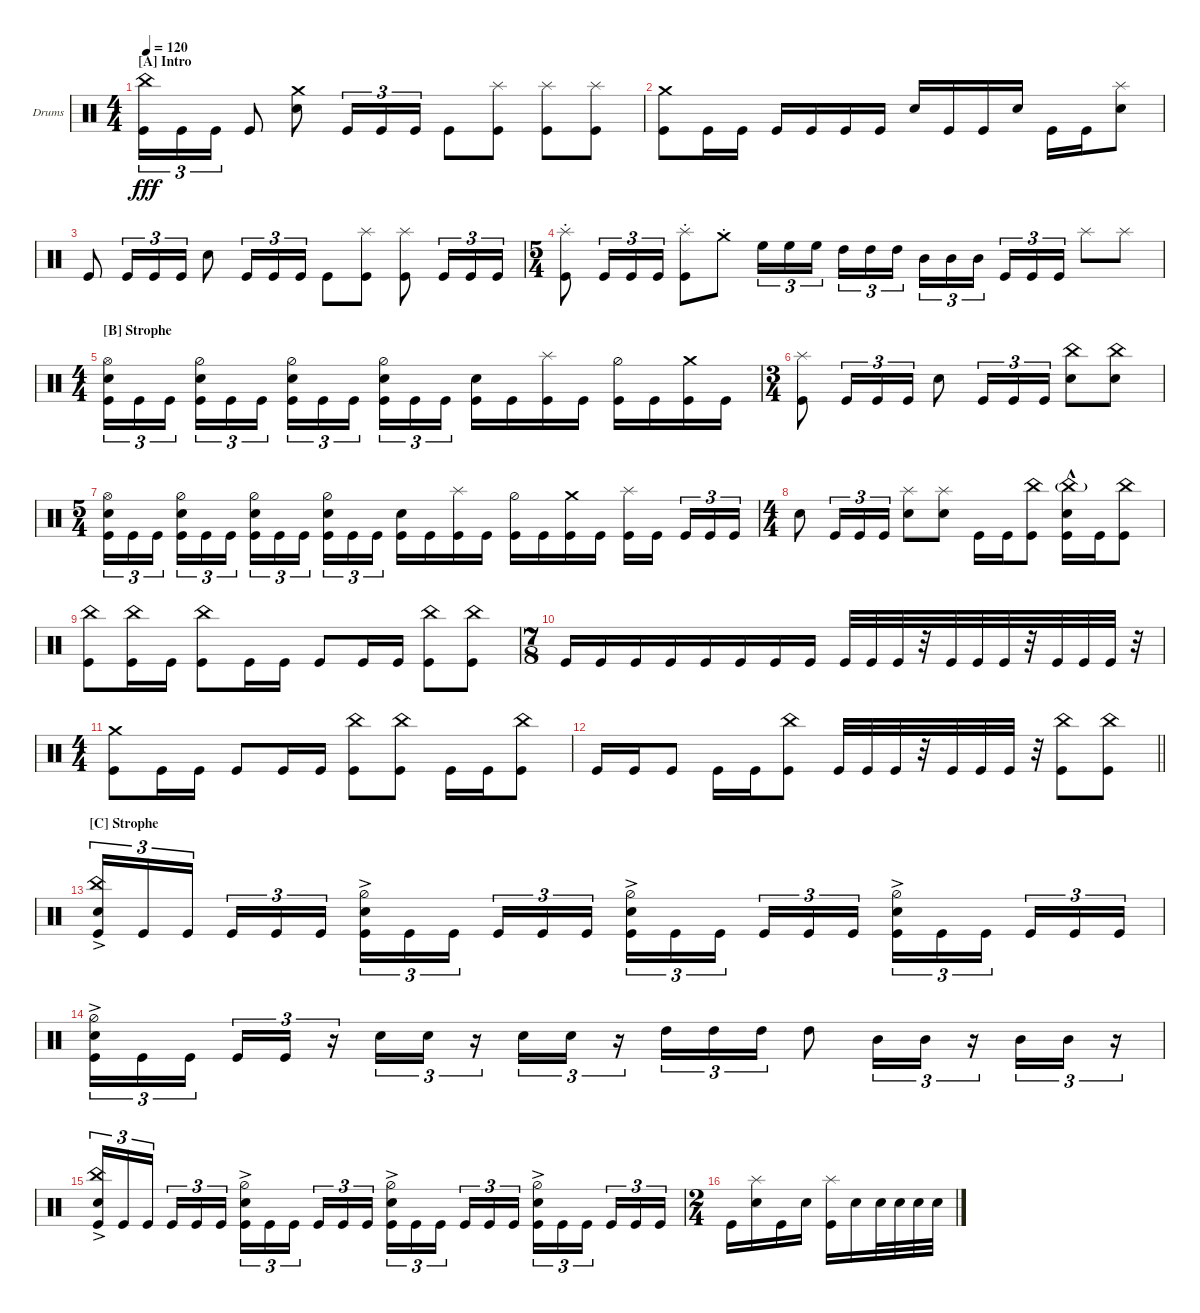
\defaultSystemsLayout 4
\bracketExtendMode groupsimilarinstruments
\firstSystemTrackNameOrientation horizontal
\otherSystemsTrackNameOrientation horizontal
\track ("Drumkit" "Drums") {instrument percussion}
\staff {score}
\articulation defaults
\ts (4 4)
\section ("A" "Intro")
\tempo 120
\clef neutral
\ks c
("Kick (hit)" "China (hit)").16{tu (3 2) dy fff} "Kick (hit)".16{tu (3 2)} "Kick (hit)".16{tu (3 2)} "Kick (hit)".8 ("Snare (hit) 2" "Crash medium (hit)").8 "Kick (hit)".16{tu (3 2)} "Kick (hit)".16{tu (3 2)} "Kick (hit)".16{tu (3 2)} "Kick (hit)".8 ("Kick (hit)" "Splash (hit)").8 ("Kick (hit)" "Splash (hit)").8 ("Kick (hit)" "Splash (hit)").8 |
("Crash medium (hit)" "Kick (hit)").8 "Kick (hit)".16 "Kick (hit)".16 "Kick (hit)".16 "Kick (hit)".16 "Kick (hit)".16 "Kick (hit)".16 "Snare (hit) 2".16 "Kick (hit)".16 "Kick (hit)".16 "Snare (hit) 2".16 "Kick (hit)".16 "Kick (hit)".16 ("Snare (hit) 2" "Splash (hit)").8 |
"Kick (hit)".8 "Kick (hit)".16{tu (3 2)} "Kick (hit)".16{tu (3 2)} "Kick (hit)".16{tu (3 2)} "Snare (hit) 2".8 "Kick (hit)".16{tu (3 2)} "Kick (hit)".16{tu (3 2)} "Kick (hit)".16{tu (3 2)} "Kick (hit)".8 ("Kick (hit)" "Splash (hit)").8 ("Kick (hit)" "Splash (hit)").8 "Kick (hit)".16{tu (3 2)} "Kick (hit)".16{tu (3 2)} "Kick (hit)".16{tu (3 2)} |
\ts (5 4)
("Kick (hit)" "Splash (hit)"{st}).8 "Kick (hit)".16{tu (3 2)} "Kick (hit)".16{tu (3 2)} "Kick (hit)".16{tu (3 2)} ("Kick (hit)" "Splash (hit)"{st}).8 "Crash medium (hit)"{st}.8 "High Floor Tom (hit)".16{tu (3 2)} "High Floor Tom (hit)".16{tu (3 2)} "High Floor Tom (hit)".16{tu (3 2)} "High Tom (hit)".16{tu (3 2)} "High Tom (hit)".16{tu (3 2)} "High Tom (hit)".16{tu (3 2)} "Mid Tom (hit)".16{tu (3 2)} "Mid Tom (hit)".16{tu (3 2)} "Mid Tom (hit)".16{tu (3 2)} "Kick (hit)".16{tu (3 2)} "Kick (hit)".16{tu (3 2)} "Kick (hit)".16{tu (3 2)} "Splash (hit)".8 "Splash (hit)".8 |
\ts (4 4)
\section ("B" "Strophe")
("Kick (hit)" "Snare (hit) 2" "Hi-Hat (open)").16{tu (3 2)} "Kick (hit)".16{tu (3 2)} "Kick (hit)".16{tu (3 2)} ("Kick (hit)" "Hi-Hat (half)" "Snare (hit) 2").16{tu (3 2)} "Kick (hit)".16{tu (3 2)} "Kick (hit)".16{tu (3 2)} ("Kick (hit)" "Hi-Hat (half)" "Snare (hit) 2").16{tu (3 2)} "Kick (hit)".16{tu (3 2)} "Kick (hit)".16{tu (3 2)} ("Kick (hit)" "Hi-Hat (half)" "Snare (hit) 2").16{tu (3 2)} "Kick (hit)".16{tu (3 2)} "Kick (hit)".16{tu (3 2)} ("Snare (hit) 2" "Kick (hit)").16 "Kick (hit)".16 ("Kick (hit)" "Splash (hit)").16 "Kick (hit)".16 ("Kick (hit)" "Hi-Hat (half)").16 "Kick (hit)".16 ("Kick (hit)" "Crash medium (hit)").16 "Kick (hit)".16 |
\ts (3 4)
("Kick (hit)" "Splash (hit)").8 "Kick (hit)".16{tu (3 2)} "Kick (hit)".16{tu (3 2)} "Kick (hit)".16{tu (3 2)} "Snare (hit) 2".8 "Kick (hit)".16{tu (3 2)} "Kick (hit)".16{tu (3 2)} "Kick (hit)".16{tu (3 2)} ("Snare (hit) 2" "China (hit)").8 ("Snare (hit) 2" "China (hit)").8 |
\ts (5 4)
("Kick (hit)" "Snare (hit) 2" "Hi-Hat (open)").16{tu (3 2)} "Kick (hit)".16{tu (3 2)} "Kick (hit)".16{tu (3 2)} ("Kick (hit)" "Hi-Hat (half)" "Snare (hit) 2").16{tu (3 2)} "Kick (hit)".16{tu (3 2)} "Kick (hit)".16{tu (3 2)} ("Kick (hit)" "Hi-Hat (half)" "Snare (hit) 2").16{tu (3 2)} "Kick (hit)".16{tu (3 2)} "Kick (hit)".16{tu (3 2)} ("Kick (hit)" "Hi-Hat (half)" "Snare (hit) 2").16{tu (3 2)} "Kick (hit)".16{tu (3 2)} "Kick (hit)".16{tu (3 2)} ("Snare (hit) 2" "Kick (hit)").16 "Kick (hit)".16 ("Kick (hit)" "Splash (hit)").16 "Kick (hit)".16 ("Kick (hit)" "Hi-Hat (half)").16 "Kick (hit)".16 ("Kick (hit)" "Crash medium (hit)").16 "Kick (hit)".16 ("Kick (hit)" "Splash (hit)").16 "Kick (hit)".16 "Kick (hit)".16{tu (3 2)} "Kick (hit)".16{tu (3 2)} "Kick (hit)".16{tu (3 2)} |
\ts (4 4)
"Snare (hit) 2".8 "Kick (hit)".16{tu (3 2)} "Kick (hit)".16{tu (3 2)} "Kick (hit)".16{tu (3 2)} ("Snare (hit) 2" "Splash (hit)").8 ("Snare (hit) 2" "Splash (hit)").8 "Kick (hit)".16 "Kick (hit)".16 ("Kick (hit)" "China (hit)").8 ("Kick (hit)" "China (hit)"{g} "Snare (hit) 2"{hac}).16 "Kick (hit)".16 ("Kick (hit)" "China (hit)").8 |
("Kick (hit)" "China (hit)").8 ("China (hit)" "Kick (hit)").16 "Kick (hit)".16 ("China (hit)" "Kick (hit)").8 "Kick (hit)".16 "Kick (hit)".16 "Kick (hit)".8 "Kick (hit)".16 "Kick (hit)".16 ("Kick (hit)" "China (hit)").8 ("Kick (hit)" "China (hit)").8 |
\ts (7 8)
"Kick (hit)".16 "Kick (hit)".16 "Kick (hit)".16 "Kick (hit)".16 "Kick (hit)".16 "Kick (hit)".16 "Kick (hit)".16 "Kick (hit)".16 "Kick (hit)".32 "Kick (hit)".32 "Kick (hit)".32 r.32 "Kick (hit)".32 "Kick (hit)".32 "Kick (hit)".32 r.32 "Kick (hit)".32 "Kick (hit)".32 "Kick (hit)".32 r.32 |
\ts (4 4)
("Kick (hit)" "Crash medium (hit)").8 "Kick (hit)".16 "Kick (hit)".16 "Kick (hit)".8 "Kick (hit)".16 "Kick (hit)".16 ("Kick (hit)" "China (hit)").8 ("Kick (hit)" "China (hit)").8 "Kick (hit)".16 "Kick (hit)".16 ("Kick (hit)" "China (hit)").8 |
\barLineRight lightlight "Kick (hit)".16 "Kick (hit)".16 "Kick (hit)".8 "Kick (hit)".16 "Kick (hit)".16
("Kick (hit)" "China (hit)").8 "Kick (hit)".32 "Kick (hit)".32 "Kick (hit)".32 r.32 "Kick (hit)".32 "Kick (hit)".32 "Kick (hit)".32 r.32 ("Kick (hit)" "China (hit)").8 ("Kick (hit)" "China (hit)").8 |
\section ("C" "Strophe")
("Kick (hit)" "Snare (hit) 2"{ac} "China (hit)").16{tu (3 2)} "Kick (hit)".16{tu (3 2)} "Kick (hit)".16{tu (3 2)} "Kick (hit)".16{tu (3 2)} "Kick (hit)".16{tu (3 2)} "Kick (hit)".16{tu (3 2)} ("Kick (hit)" "Snare (hit) 2"{ac} "Hi-Hat (half)").16{tu (3 2)} "Kick (hit)".16{tu (3 2)} "Kick (hit)".16{tu (3 2)} "Kick (hit)".16{tu (3 2)} "Kick (hit)".16{tu (3 2)} "Kick (hit)".16{tu (3 2)} ("Kick (hit)" "Snare (hit) 2"{ac} "Hi-Hat (half)").16{tu (3 2)} "Kick (hit)".16{tu (3 2)} "Kick (hit)".16{tu (3 2)} "Kick (hit)".16{tu (3 2)} "Kick (hit)".16{tu (3 2)} "Kick (hit)".16{tu (3 2)} ("Kick (hit)" "Snare (hit) 2"{ac} "Hi-Hat (half)").16{tu (3 2)} "Kick (hit)".16{tu (3 2)} "Kick (hit)".16{tu (3 2)} "Kick (hit)".16{tu (3 2)} "Kick (hit)".16{tu (3 2)} "Kick (hit)".16{tu (3 2)} |
("Kick (hit)" "Snare (hit) 2"{ac} "Hi-Hat (half)").16{tu (3 2)} "Kick (hit)".16{tu (3 2)} "Kick (hit)".16{tu (3 2)} "Kick (hit)".16{tu (3 2)} "Kick (hit)".16{tu (3 2)} r.16{tu (3 2)} "Snare (hit) 2".16{tu (3 2)} "Snare (hit) 2".16{tu (3 2)} r.16{tu (3 2)} "Snare (hit) 2".16{tu (3 2)} "Snare (hit) 2".16{tu (3 2)} r.16{tu (3 2)} "High Tom (hit)".16{tu (3 2)} "High Tom (hit)".16{tu (3 2)} "High Tom (hit)".16{tu (3 2)} "High Tom (hit)".8 "Mid Tom (hit)".16{tu (3 2)} "Mid Tom (hit)".16{tu (3 2)} r.16{tu (3 2)} "Mid Tom (hit)".16{tu (3 2)} "Mid Tom (hit)".16{tu (3 2)} r.16{tu (3 2)} |
("Kick (hit)" "Snare (hit) 2"{ac} "China (hit)").16{tu (3 2)} "Kick (hit)".16{tu (3 2)} "Kick (hit)".16{tu (3 2)} "Kick (hit)".16{tu (3 2)} "Kick (hit)".16{tu (3 2)} "Kick (hit)".16{tu (3 2)} ("Kick (hit)" "Snare (hit) 2"{ac} "Hi-Hat (half)").16{tu (3 2)} "Kick (hit)".16{tu (3 2)} "Kick (hit)".16{tu (3 2)} "Kick (hit)".16{tu (3 2)} "Kick (hit)".16{tu (3 2)} "Kick (hit)".16{tu (3 2)} ("Kick (hit)" "Snare (hit) 2"{ac} "Hi-Hat (half)").16{tu (3 2)} "Kick (hit)".16{tu (3 2)} "Kick (hit)".16{tu (3 2)} "Kick (hit)".16{tu (3 2)} "Kick (hit)".16{tu (3 2)} "Kick (hit)".16{tu (3 2)} ("Kick (hit)" "Snare (hit) 2"{ac} "Hi-Hat (half)").16{tu (3 2)} "Kick (hit)".16{tu (3 2)} "Kick (hit)".16{tu (3 2)} "Kick (hit)".16{tu (3 2)} "Kick (hit)".16{tu (3 2)} "Kick (hit)".16{tu (3 2)} |
\ts (2 4)
"Kick (hit)".16 ("Snare (hit) 2" "Splash (hit)").16 "Kick (hit)".16 "Snare (hit) 2".16 ("Kick (hit)" "Splash (hit)").16 "Snare (hit) 2".16 "Snare (hit) 2".32 "Snare (hit) 2".32 "Snare (hit) 2".32 "Snare (hit) 2".32
